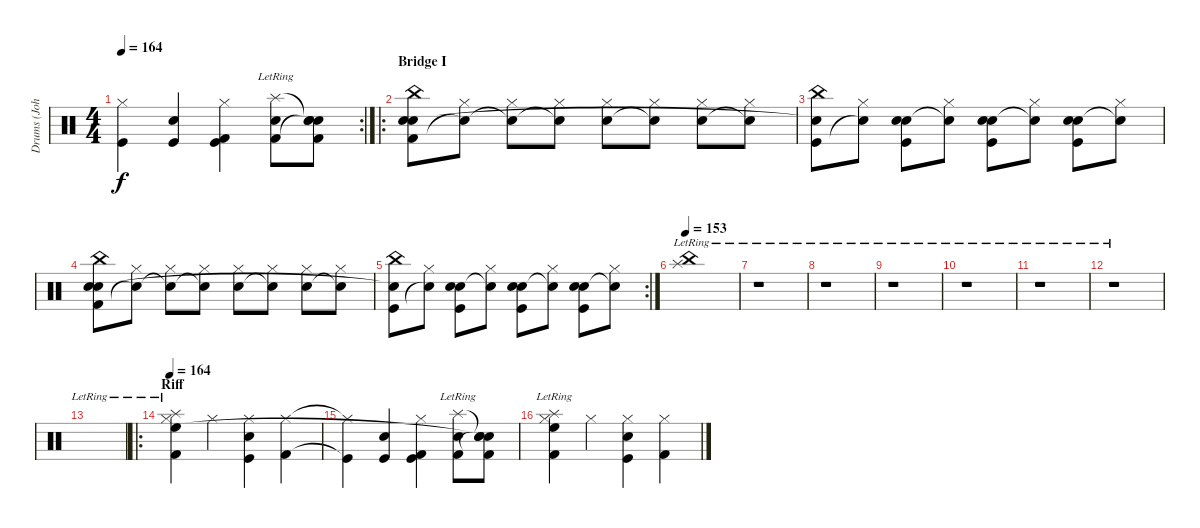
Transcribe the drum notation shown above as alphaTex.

\track ("Drums (John)" "Drums (Joh") {instrument percussion}
\staff {score}
\articulation defaults
\rc 2
\ts (4 4)
\tempo 164
\clef neutral
\ks c
("Hi-Hat (closed)"{t} "Kick (hit)"{t}).4{dy f} ("Electric Snare (hit)" "Kick (hit)").4 ("Hi-Hat (closed)" "Kick (hit) 2" "Kick (hit)").4 ("Splash (hit)"{lr} "Electric Snare (hit)" "Kick (hit) 2").8 ("Snare (hit)"{t} "Kick (hit) 2" "Snare (hit)"{t} "Snare (hit)"{t}).8 |
\ro
\section ("" "Bridge I")
("China (hit)" "Kick (hit) 2" "Snare (hit) 2" "Electric Snare (hit)").8 ("Hi-Hat (closed)" "Electric Snare (hit)"{t}).8 ("Hi-Hat (closed)" "Snare (hit)"{t}).8 ("Hi-Hat (closed)" "Snare (hit)"{t}).8 ("Hi-Hat (closed)" "Electric Snare (hit)").8 ("Hi-Hat (closed)" "Snare (hit)"{t}).8 ("Hi-Hat (closed)" "Electric Snare (hit)").8 ("Hi-Hat (closed)" "Snare (hit)"{t}).8 |
("China (hit)" "Kick (hit)" "Electric Snare (hit)"{t}).8 ("Hi-Hat (closed)" "Snare (hit)"{t}).8 ("Kick (hit)" "Snare (hit) 2" "Electric Snare (hit)").8 ("Hi-Hat (closed)" "Snare (hit)"{t}).8 ("Kick (hit)" "Snare (hit) 2" "Electric Snare (hit)").8 ("Hi-Hat (closed)" "Snare (hit)"{t}).8 ("Kick (hit)" "Snare (hit) 2" "Electric Snare (hit)").8 ("Hi-Hat (closed)" "Snare (hit)"{t}).8 |
("China (hit)" "Kick (hit) 2" "Snare (hit) 2" "Electric Snare (hit)").8 ("Hi-Hat (closed)" "Electric Snare (hit)"{t}).8 ("Hi-Hat (closed)" "Snare (hit)"{t}).8 ("Hi-Hat (closed)" "Snare (hit)"{t}).8 ("Hi-Hat (closed)" "Electric Snare (hit)").8 ("Hi-Hat (closed)" "Snare (hit)"{t}).8 ("Hi-Hat (closed)" "Electric Snare (hit)").8 ("Hi-Hat (closed)" "Snare (hit)"{t}).8 |
\rc 2
("China (hit)" "Kick (hit)" "Electric Snare (hit)"{t}).8 ("Hi-Hat (closed)" "Snare (hit)"{t}).8 ("Kick (hit)" "Snare (hit) 2" "Electric Snare (hit)").8 ("Hi-Hat (closed)" "Snare (hit)"{t}).8 ("Kick (hit)" "Snare (hit) 2" "Electric Snare (hit)").8 ("Hi-Hat (closed)" "Snare (hit)"{t}).8 ("Kick (hit)" "Snare (hit) 2" "Electric Snare (hit)").8 ("Hi-Hat (closed)" "Snare (hit)"{t}).8 |
\tempo 153
("China (hit)" "Splash (hit)"{lr}).1 |
r.1 |
r.1 |
r.1 |
r.1 |
r.1 |
r.1 |
|
\ro
\section ("" "Riff")
\tempo 164
("Splash (hit)"{lr} "Hi-Hat (closed)" "Kick (hit) 2" "High Floor Tom (hit)").4 "Hi-Hat (closed)".4 ("Hi-Hat (closed)" "Electric Snare (hit)" "Kick (hit)").4 ("Hi-Hat (closed)" "Kick (hit) 2").4 |
("Hi-Hat (closed)"{t} "Kick (hit)"{t}).4 ("Electric Snare (hit)" "Kick (hit)").4 ("Hi-Hat (closed)" "Kick (hit) 2" "Kick (hit)").4 ("Splash (hit)"{lr} "Electric Snare (hit)" "Kick (hit) 2").8 ("Snare (hit)"{t} "Kick (hit) 2" "Snare (hit)"{t} "Snare (hit)"{t}).8 |
("Splash (hit)"{lr} "Hi-Hat (closed)" "Kick (hit) 2" "High Floor Tom (hit)").4 "Hi-Hat (closed)".4 ("Hi-Hat (closed)" "Electric Snare (hit)" "Kick (hit)").4 ("Hi-Hat (closed)" "Kick (hit) 2").4
